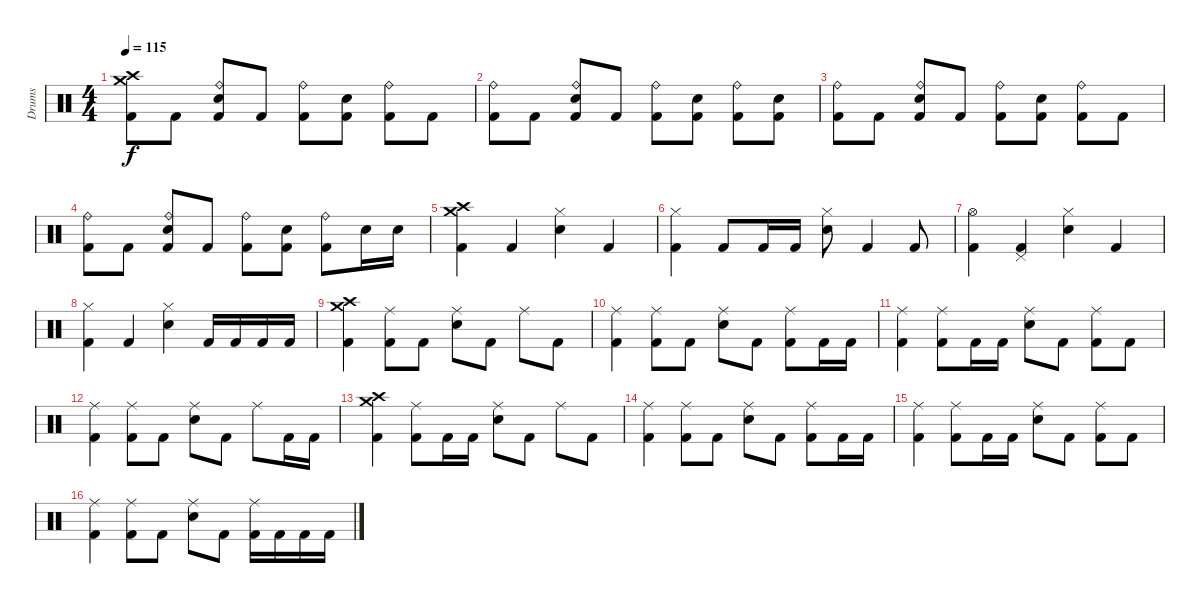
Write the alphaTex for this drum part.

\track ("Drums" "Drums") {instrument percussion}
\staff {score}
\articulation defaults
\ts (4 4)
\tempo 115
\clef neutral
\ks c
("Crash medium (hit)" "Crash high (hit)" "Kick (hit) 2").8{dy f} "Kick (hit) 2".8 ("Ride (bell)" "Electric Snare (hit)" "Kick (hit) 2").8 "Kick (hit) 2".8 ("Ride (bell)" "Kick (hit) 2").8 ("Electric Snare (hit)" "Kick (hit) 2").8 ("Ride (bell)" "Kick (hit) 2").8 "Kick (hit) 2".8 |
("Ride (bell)" "Kick (hit) 2").8 "Kick (hit) 2".8 ("Ride (bell)" "Electric Snare (hit)" "Kick (hit) 2").8 "Kick (hit) 2".8 ("Ride (bell)" "Kick (hit) 2").8 ("Electric Snare (hit)" "Kick (hit) 2").8 ("Ride (bell)" "Kick (hit) 2").8 ("Electric Snare (hit)" "Kick (hit) 2").8 |
("Ride (bell)" "Kick (hit) 2").8 "Kick (hit) 2".8 ("Ride (bell)" "Electric Snare (hit)" "Kick (hit) 2").8 "Kick (hit) 2".8 ("Ride (bell)" "Kick (hit) 2").8 ("Electric Snare (hit)" "Kick (hit) 2").8 ("Ride (bell)" "Kick (hit) 2").8 "Kick (hit) 2".8 |
("Ride (bell)" "Kick (hit) 2").8 "Kick (hit) 2".8 ("Ride (bell)" "Electric Snare (hit)" "Kick (hit) 2").8 "Kick (hit) 2".8 ("Ride (bell)" "Kick (hit) 2").8 ("Electric Snare (hit)" "Kick (hit) 2").8 ("Ride (bell)" "Kick (hit) 2").8 "Electric Snare (hit)".16 "Electric Snare (hit)".16 |
("Crash medium (hit)" "Crash high (hit)" "Kick (hit) 2").4 "Kick (hit) 2".4 ("Hi-Hat (closed)" "Electric Snare (hit)").4 "Kick (hit) 2".4 |
("Hi-Hat (closed)" "Kick (hit) 2").4 "Kick (hit) 2".8 "Kick (hit) 2".16 "Kick (hit) 2".16 ("Hi-Hat (closed)" "Electric Snare (hit)").8 "Kick (hit) 2".4 "Kick (hit) 2".8 |
("Hi-Hat (open)" "Kick (hit) 2").4 ("Pedal Hi-Hat (hit)" "Kick (hit) 2").4 ("Hi-Hat (closed)" "Electric Snare (hit)").4 "Kick (hit) 2".4 |
("Hi-Hat (closed)" "Kick (hit) 2").4 "Kick (hit) 2".4 ("Hi-Hat (closed)" "Electric Snare (hit)").4 "Kick (hit) 2".16 "Kick (hit) 2".16 "Kick (hit) 2".16 "Kick (hit) 2".16 |
("Crash medium (hit)" "Crash high (hit)" "Kick (hit) 2").4 ("Ride (middle)" "Kick (hit) 2").8 "Kick (hit) 2".8 ("Ride (middle)" "Electric Snare (hit)").8 "Kick (hit) 2".8 "Ride (middle)".8 "Kick (hit) 2".8 |
("Ride (middle)" "Kick (hit) 2").4 ("Ride (middle)" "Kick (hit) 2").8 "Kick (hit) 2".8 ("Ride (middle)" "Electric Snare (hit)").8 "Kick (hit) 2".8 ("Ride (middle)" "Kick (hit) 2").8 "Kick (hit) 2".16 "Kick (hit) 2".16 |
("Ride (middle)" "Kick (hit) 2").4 ("Ride (middle)" "Kick (hit) 2").8 "Kick (hit) 2".16 "Kick (hit) 2".16 ("Ride (middle)" "Electric Snare (hit)").8 "Kick (hit) 2".8 ("Ride (middle)" "Kick (hit) 2").8 "Kick (hit) 2".8 |
("Ride (middle)" "Kick (hit) 2").4 ("Ride (middle)" "Kick (hit) 2").8 "Kick (hit) 2".8 ("Ride (middle)" "Electric Snare (hit)").8 "Kick (hit) 2".8 "Ride (middle)".8 "Kick (hit) 2".16 "Kick (hit) 2".16 |
("Crash medium (hit)" "Crash high (hit)" "Kick (hit) 2").4 ("Ride (middle)" "Kick (hit) 2").8 "Kick (hit) 2".16 "Kick (hit) 2".16 ("Ride (middle)" "Electric Snare (hit)").8 "Kick (hit) 2".8 "Ride (middle)".8 "Kick (hit) 2".8 |
("Ride (middle)" "Kick (hit) 2").4 ("Ride (middle)" "Kick (hit) 2").8 "Kick (hit) 2".8 ("Ride (middle)" "Electric Snare (hit)").8 "Kick (hit) 2".8 ("Ride (middle)" "Kick (hit) 2").8 "Kick (hit) 2".16 "Kick (hit) 2".16 |
("Ride (middle)" "Kick (hit) 2").4 ("Ride (middle)" "Kick (hit) 2").8 "Kick (hit) 2".16 "Kick (hit) 2".16 ("Ride (middle)" "Electric Snare (hit)").8 "Kick (hit) 2".8 ("Ride (middle)" "Kick (hit) 2").8 "Kick (hit) 2".8 |
("Ride (middle)" "Kick (hit) 2").4 ("Ride (middle)" "Kick (hit) 2").8 "Kick (hit) 2".8 ("Ride (middle)" "Electric Snare (hit)").8 "Kick (hit) 2".8 ("Ride (middle)" "Kick (hit) 2").16 "Kick (hit) 2".16 "Kick (hit) 2".16 "Kick (hit) 2".16
